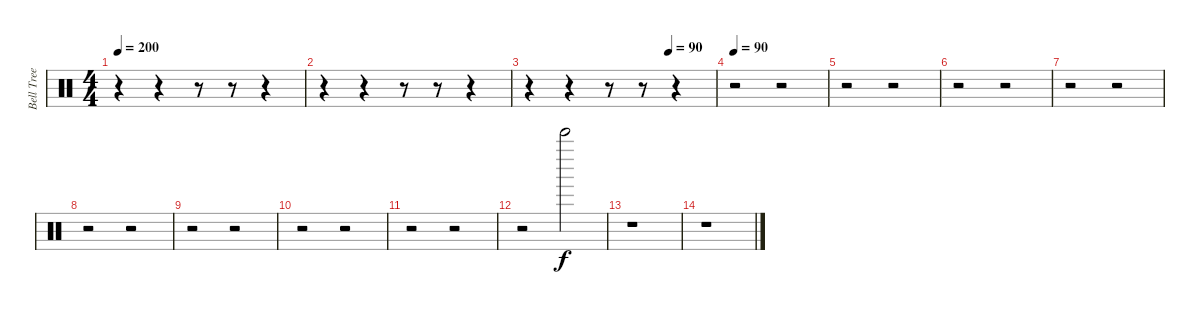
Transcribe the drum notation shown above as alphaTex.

\track ("Bell Tree" "Bell Tree") {instrument percussion}
\staff {score}
\articulation defaults
\ts (4 4)
\tempo 200
\clef neutral
\ks c
r.4{dy f} r.4 r.8 r.8 r.4 |
r.4 r.4 r.8 r.8 r.4 |
\tempo (90 0.75)
r.4 r.4 r.8 r.8 r.4 |
\tempo 90
r.2 r.2 |
r.2 r.2 |
r.2 r.2 |
r.2 r.2 |
r.2 r.2 |
r.2 r.2 |
r.2 r.2 |
r.2 r.2 |
r.2 "Bell Tree (hit)".2 |
r.1 |
r.1
